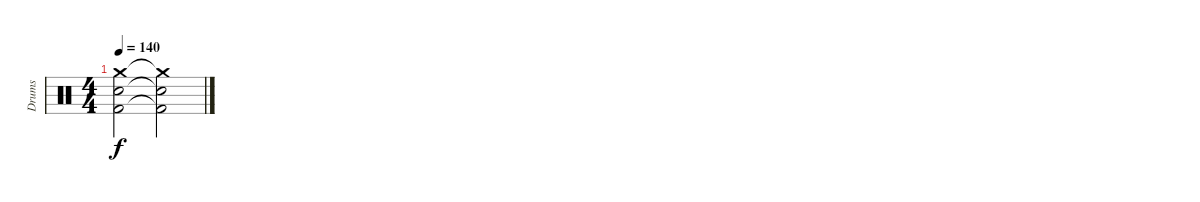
\track ("Drums" "Drums") {instrument percussion}
\staff {score}
\articulation defaults
\ts (4 4)
\tempo 140
\clef neutral
\ks c
("Crash medium (hit)" "Electric Snare (hit)" "Kick (hit) 2").2{dy f} ("Crash medium (hit)"{t} "Electric Snare (hit)"{t} "Kick (hit) 2"{t}).2{volume 0}
